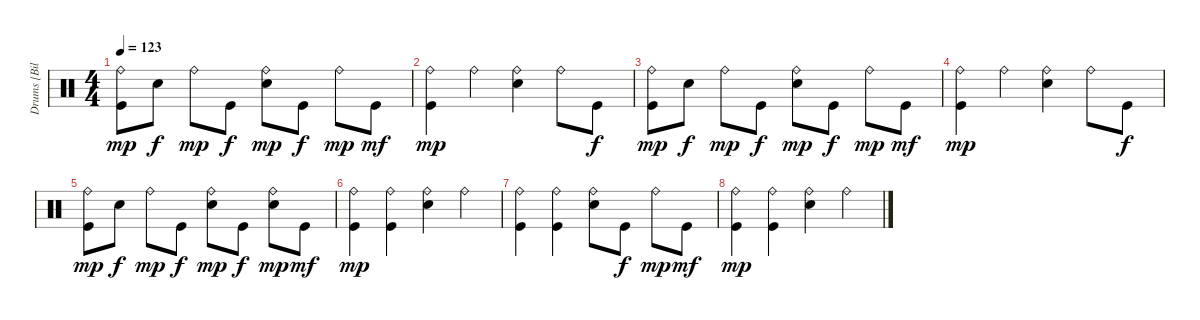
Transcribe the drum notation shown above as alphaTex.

\track ("Drums [Bill Ward]" "Drums [Bil") {instrument percussion}
\staff {score}
\articulation defaults
\ts (4 4)
\tempo 123
\clef neutral
\ks c
("Ride (bell)" "Kick (hit)").8{dy mp} "Electric Snare (hit)".8{dy f} "Ride (bell)".8{dy mp} "Kick (hit)".8{dy f} ("Ride (bell)" "Electric Snare (hit)").8{dy mp} "Kick (hit)".8{dy f} "Ride (bell)".8{dy mp} "Kick (hit)".8{dy mf} |
("Ride (bell)" "Kick (hit)").4{dy mp} "Ride (bell)".4 ("Ride (bell)" "Electric Snare (hit)").4 "Ride (bell)".8 "Kick (hit)".8{dy f} |
("Ride (bell)" "Kick (hit)").8{dy mp volume 4} "Electric Snare (hit)".8{dy f} "Ride (bell)".8{dy mp} "Kick (hit)".8{dy f} ("Ride (bell)" "Electric Snare (hit)").8{dy mp} "Kick (hit)".8{dy f} "Ride (bell)".8{dy mp} "Kick (hit)".8{dy mf} |
("Ride (bell)" "Kick (hit)").4{dy mp} "Ride (bell)".4 ("Ride (bell)" "Electric Snare (hit)").4 "Ride (bell)".8 "Kick (hit)".8{dy f} |
("Ride (bell)" "Kick (hit)").8{dy mp} "Electric Snare (hit)".8{dy f} "Ride (bell)".8{dy mp} "Kick (hit)".8{dy f} ("Ride (bell)" "Electric Snare (hit)").8{dy mp} "Kick (hit)".8{dy f} ("Ride (bell)" "Electric Snare (hit)").8{dy mp} "Kick (hit)".8{dy mf} |
("Ride (bell)" "Kick (hit)").4{dy mp volume 0} ("Ride (bell)" "Kick (hit)").4 ("Ride (bell)" "Electric Snare (hit)").4 "Ride (bell)".4 |
("Ride (bell)" "Kick (hit)").4 ("Ride (bell)" "Kick (hit)").4 ("Ride (bell)" "Electric Snare (hit)").8 "Kick (hit)".8{dy f} "Ride (bell)".8{dy mp} "Kick (hit)".8{dy mf} |
("Ride (bell)" "Kick (hit)").4{dy mp} ("Ride (bell)" "Kick (hit)").4 ("Ride (bell)" "Electric Snare (hit)").4 "Ride (bell)".4
